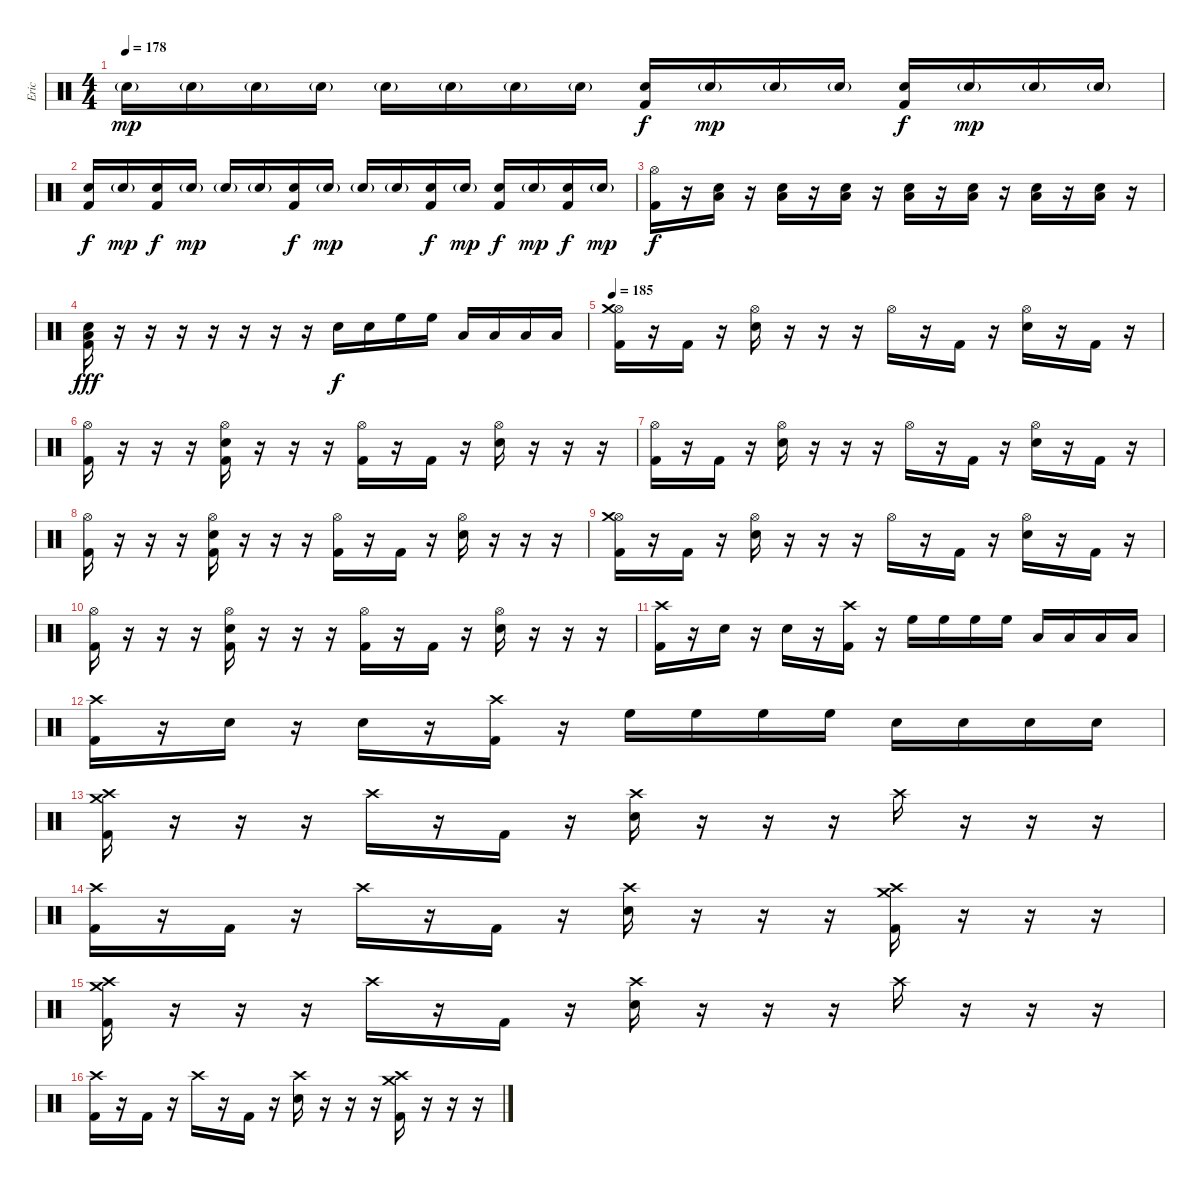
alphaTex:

\track ("Eric" "Eric") {instrument percussion}
\staff {score}
\articulation defaults
\ts (4 4)
\tempo 178
\clef neutral
\ks c "Electric Snare (hit)"{g}.16{dy mp} "Electric Snare (hit)"{g}.16 "Electric Snare (hit)"{g}.16 "Electric Snare (hit)"{g}.16 "Electric Snare (hit)"{g}.16 "Electric Snare (hit)"{g}.16 "Electric Snare (hit)"{g}.16 "Electric Snare (hit)"{g}.16
("Electric Snare (hit)" "Kick (hit) 2").16{dy f} "Electric Snare (hit)"{g}.16{dy mp} "Electric Snare (hit)"{g}.16 "Electric Snare (hit)"{g}.16 ("Electric Snare (hit)" "Kick (hit) 2").16{dy f} "Electric Snare (hit)"{g}.16{dy mp} "Electric Snare (hit)"{g}.16 "Electric Snare (hit)"{g}.16 |
("Electric Snare (hit)" "Kick (hit) 2").16{dy f} "Electric Snare (hit)"{g}.16{dy mp} ("Electric Snare (hit)" "Kick (hit) 2").16{dy f} "Electric Snare (hit)"{g}.16{dy mp} "Electric Snare (hit)"{g}.16 "Electric Snare (hit)"{g}.16 ("Electric Snare (hit)" "Kick (hit) 2").16{dy f} "Electric Snare (hit)"{g}.16{dy mp} "Electric Snare (hit)"{g}.16 "Electric Snare (hit)"{g}.16 ("Electric Snare (hit)" "Kick (hit) 2").16{dy f} "Electric Snare (hit)"{g}.16{dy mp} ("Electric Snare (hit)" "Kick (hit) 2").16{dy f} "Electric Snare (hit)"{g}.16{dy mp} ("Electric Snare (hit)" "Kick (hit) 2").16{dy f} "Electric Snare (hit)"{g}.16{dy mp} |
("Hi-Hat (open)" "Kick (hit) 2").16{dy f} r.16 ("Electric Snare (hit)" "Low Floor Tom (hit)").16 r.16 ("Electric Snare (hit)" "Low Floor Tom (hit)").16 r.16 ("Electric Snare (hit)" "Low Floor Tom (hit)").16 r.16 ("Electric Snare (hit)" "Low Floor Tom (hit)").16 r.16 ("Electric Snare (hit)" "Low Floor Tom (hit)").16 r.16 ("Electric Snare (hit)" "Low Floor Tom (hit)").16 r.16 ("Electric Snare (hit)" "Low Floor Tom (hit)").16 r.16 |
("Low Floor Tom (hit)" "Electric Snare (hit)" "Kick (hit) 2").16{dy fff} r.16 r.16 r.16 r.16 r.16 r.16 r.16 "Electric Snare (hit)".16{dy f} "Electric Snare (hit)".16 "High Floor Tom (hit)".16 "High Floor Tom (hit)".16 "Low Tom (hit)".16 "Low Tom (hit)".16 "Low Floor Tom (hit)".16 "Low Floor Tom (hit)".16 |
\tempo 185
("Hi-Hat (open)" "Crash medium (hit)" "Kick (hit) 2").16 r.16 "Kick (hit) 2".16 r.16 ("Hi-Hat (open)" "Electric Snare (hit)").16 r.16 r.16 r.16 "Hi-Hat (open)".16 r.16 "Kick (hit) 2".16 r.16 ("Hi-Hat (open)" "Electric Snare (hit)").16 r.16 "Kick (hit) 2".16 r.16 |
("Hi-Hat (open)" "Kick (hit) 2").16 r.16 r.16 r.16 ("Hi-Hat (open)" "Electric Snare (hit)" "Kick (hit) 2").16 r.16 r.16 r.16 ("Hi-Hat (open)" "Kick (hit) 2").16 r.16 "Kick (hit) 2".16 r.16 ("Hi-Hat (open)" "Electric Snare (hit)").16 r.16 r.16 r.16 |
("Hi-Hat (open)" "Kick (hit) 2").16 r.16 "Kick (hit) 2".16 r.16 ("Hi-Hat (open)" "Electric Snare (hit)").16 r.16 r.16 r.16 "Hi-Hat (open)".16 r.16 "Kick (hit) 2".16 r.16 ("Hi-Hat (open)" "Electric Snare (hit)").16 r.16 "Kick (hit) 2".16 r.16 |
("Hi-Hat (open)" "Kick (hit) 2").16 r.16 r.16 r.16 ("Hi-Hat (open)" "Electric Snare (hit)" "Kick (hit) 2").16 r.16 r.16 r.16 ("Hi-Hat (open)" "Kick (hit) 2").16 r.16 "Kick (hit) 2".16 r.16 ("Hi-Hat (open)" "Electric Snare (hit)").16 r.16 r.16 r.16 |
("Hi-Hat (open)" "Crash medium (hit)" "Kick (hit) 2").16 r.16 "Kick (hit) 2".16 r.16 ("Hi-Hat (open)" "Electric Snare (hit)").16 r.16 r.16 r.16 "Hi-Hat (open)".16 r.16 "Kick (hit) 2".16 r.16 ("Hi-Hat (open)" "Electric Snare (hit)").16 r.16 "Kick (hit) 2".16 r.16 |
("Hi-Hat (open)" "Kick (hit) 2").16 r.16 r.16 r.16 ("Hi-Hat (open)" "Electric Snare (hit)" "Kick (hit) 2").16 r.16 r.16 r.16 ("Hi-Hat (open)" "Kick (hit) 2").16 r.16 "Kick (hit) 2".16 r.16 ("Hi-Hat (open)" "Electric Snare (hit)").16 r.16 r.16 r.16 |
("Crash high (hit)" "Kick (hit) 2").16 r.16 "Electric Snare (hit)".16 r.16 "Electric Snare (hit)".16 r.16 ("Crash high (hit)" "Kick (hit) 2").16 r.16 "High Floor Tom (hit)".16 "High Floor Tom (hit)".16 "High Floor Tom (hit)".16 "High Floor Tom (hit)".16 "Low Tom (hit)".16 "Low Tom (hit)".16 "Low Tom (hit)".16 "Low Tom (hit)".16 |
("Crash high (hit)" "Kick (hit) 2").16 r.16 "Electric Snare (hit)".16 r.16 "Electric Snare (hit)".16 r.16 ("Crash high (hit)" "Kick (hit) 2").16 r.16 "High Floor Tom (hit)".16 "High Floor Tom (hit)".16 "High Floor Tom (hit)".16 "High Floor Tom (hit)".16 "Electric Snare (hit)".16 "Electric Snare (hit)".16 "Electric Snare (hit)".16 "Electric Snare (hit)".16 |
("Crash high (hit)" "Crash medium (hit)" "Kick (hit) 2").16 r.16 r.16 r.16 "Crash high (hit)".16 r.16 "Kick (hit) 2".16 r.16 ("Crash high (hit)" "Electric Snare (hit)").16 r.16 r.16 r.16 "Crash high (hit)".16 r.16 r.16 r.16 |
("Crash high (hit)" "Kick (hit) 2").16 r.16 "Kick (hit) 2".16 r.16 "Crash high (hit)".16 r.16 "Kick (hit) 2".16 r.16 ("Crash high (hit)" "Electric Snare (hit)").16 r.16 r.16 r.16 ("Crash medium (hit)" "Crash high (hit)" "Kick (hit) 2").16 r.16 r.16 r.16 |
("Crash high (hit)" "Crash medium (hit)" "Kick (hit) 2").16 r.16 r.16 r.16 "Crash high (hit)".16 r.16 "Kick (hit) 2".16 r.16 ("Crash high (hit)" "Electric Snare (hit)").16 r.16 r.16 r.16 "Crash high (hit)".16 r.16 r.16 r.16 |
("Crash high (hit)" "Kick (hit) 2").16 r.16 "Kick (hit) 2".16 r.16 "Crash high (hit)".16 r.16 "Kick (hit) 2".16 r.16 ("Crash high (hit)" "Electric Snare (hit)").16 r.16 r.16 r.16 ("Crash medium (hit)" "Crash high (hit)" "Kick (hit) 2").16 r.16 r.16 r.16
